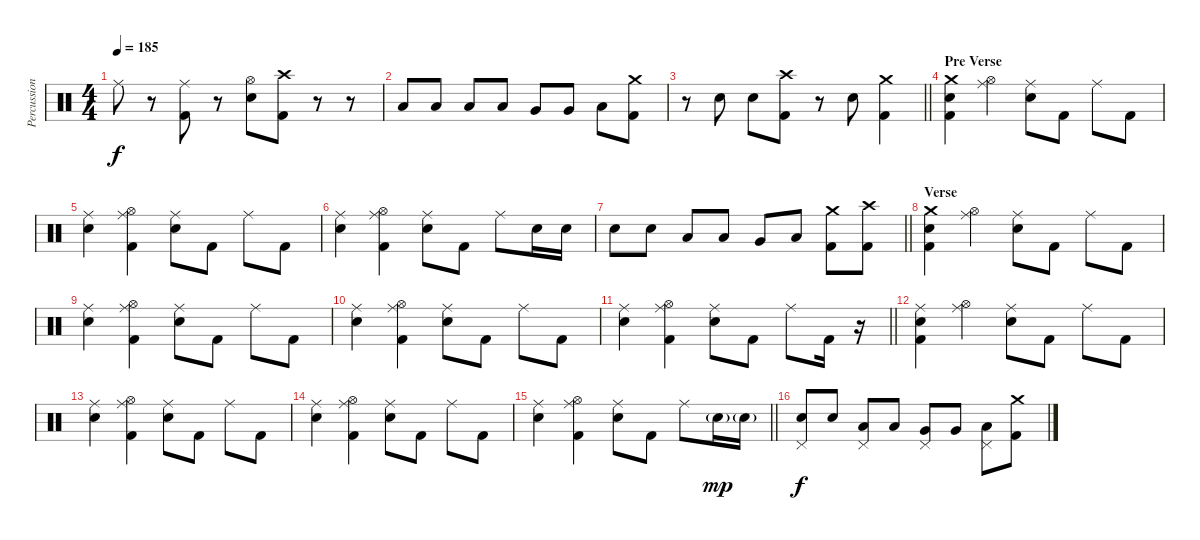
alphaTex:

\track ("Percussion" "Percussion") {instrument percussion}
\staff {score}
\articulation defaults
\ts (4 4)
\tempo 185
\clef neutral
\ks c "Ride (middle)".8{dy f}
r.8 ("Ride (middle)" "Kick (hit) 2").8 r.8 ("Hi-Hat (open)" "Electric Snare (hit)").8 ("Crash high (hit)" "Kick (hit) 2").8 r.8 r.8 |
"Low Tom (hit)".8 "Low Tom (hit)".8 "Low Tom (hit)".8 "Low Tom (hit)".8 "Very Low Tom (hit)".8 "Very Low Tom (hit)".8 "Low Floor Tom (hit)".8 ("Crash medium (hit)" "Kick (hit) 2").8 |
\barLineRight lightlight
r.8 "Electric Snare (hit)".8 "Electric Snare (hit)".8 ("Crash high (hit)" "Kick (hit) 2").8 r.8 "Electric Snare (hit)".8 ("Crash medium (hit)" "Kick (hit) 2").4 |
\section ("" "Pre Verse")
("Crash medium (hit)" "Electric Snare (hit)" "Kick (hit) 2").4 ("Hi-Hat (open)" "Ride (middle)").4 ("Ride (middle)" "Electric Snare (hit)").8 "Kick (hit) 2".8 "Ride (middle)".8 "Kick (hit) 2".8 |
("Ride (middle)" "Electric Snare (hit)").4 ("Hi-Hat (open)" "Ride (middle)" "Kick (hit) 2").4 ("Ride (middle)" "Electric Snare (hit)").8 "Kick (hit) 2".8 "Ride (middle)".8 "Kick (hit) 2".8 |
("Ride (middle)" "Electric Snare (hit)").4 ("Hi-Hat (open)" "Ride (middle)" "Kick (hit) 2").4 ("Ride (middle)" "Electric Snare (hit)").8 "Kick (hit) 2".8 "Ride (middle)".8 "Electric Snare (hit)".16 "Electric Snare (hit)".16 |
\barLineRight lightlight "Electric Snare (hit)".8 "Electric Snare (hit)".8 "Low Tom (hit)".8 "Low Tom (hit)".8 "Very Low Tom (hit)".8 "Low Floor Tom (hit)".8
("Crash medium (hit)" "Kick (hit) 2").8 ("Crash high (hit)" "Kick (hit) 2").8 |
\section ("" "Verse")
("Crash medium (hit)" "Electric Snare (hit)" "Kick (hit) 2").4 ("Hi-Hat (open)" "Ride (middle)").4 ("Ride (middle)" "Electric Snare (hit)").8 "Kick (hit) 2".8 "Ride (middle)".8 "Kick (hit) 2".8 |
("Ride (middle)" "Electric Snare (hit)").4 ("Hi-Hat (open)" "Ride (middle)" "Kick (hit) 2").4 ("Ride (middle)" "Electric Snare (hit)").8 "Kick (hit) 2".8 "Ride (middle)".8 "Kick (hit) 2".8 |
("Ride (middle)" "Electric Snare (hit)").4 ("Hi-Hat (open)" "Ride (middle)" "Kick (hit) 2").4 ("Ride (middle)" "Electric Snare (hit)").8 "Kick (hit) 2".8 "Ride (middle)".8 "Kick (hit) 2".8 |
\barLineRight lightlight
("Ride (middle)" "Electric Snare (hit)").4 ("Hi-Hat (open)" "Ride (middle)" "Kick (hit) 2").4 ("Ride (middle)" "Electric Snare (hit)").8 "Kick (hit) 2".8 "Ride (middle)".8 "Kick (hit) 2".16 r.16 |
("Ride (middle)" "Electric Snare (hit)" "Kick (hit) 2").4 ("Hi-Hat (open)" "Ride (middle)").4 ("Ride (middle)" "Electric Snare (hit)").8 "Kick (hit) 2".8 "Ride (middle)".8 "Kick (hit) 2".8 |
("Ride (middle)" "Electric Snare (hit)").4 ("Hi-Hat (open)" "Ride (middle)" "Kick (hit) 2").4 ("Ride (middle)" "Electric Snare (hit)").8 "Kick (hit) 2".8 "Ride (middle)".8 "Kick (hit) 2".8 |
("Ride (middle)" "Electric Snare (hit)").4 ("Hi-Hat (open)" "Ride (middle)" "Kick (hit) 2").4 ("Ride (middle)" "Electric Snare (hit)").8 "Kick (hit) 2".8 "Ride (middle)".8 "Kick (hit) 2".8 |
\barLineRight lightlight
("Ride (middle)" "Electric Snare (hit)").4 ("Hi-Hat (open)" "Ride (middle)" "Kick (hit) 2").4 ("Ride (middle)" "Electric Snare (hit)").8 "Kick (hit) 2".8 "Ride (middle)".8 "Electric Snare (hit)"{g}.16{dy mp} "Electric Snare (hit)"{g}.16 |
("Pedal Hi-Hat (hit)" "Electric Snare (hit)").8{dy f} "Electric Snare (hit)".8 ("Pedal Hi-Hat (hit)" "Low Tom (hit)").8 "Low Tom (hit)".8 ("Pedal Hi-Hat (hit)" "Very Low Tom (hit)").8 "Very Low Tom (hit)".8 ("Pedal Hi-Hat (hit)" "Low Floor Tom (hit)").8 ("Crash medium (hit)" "Kick (hit) 2").8
